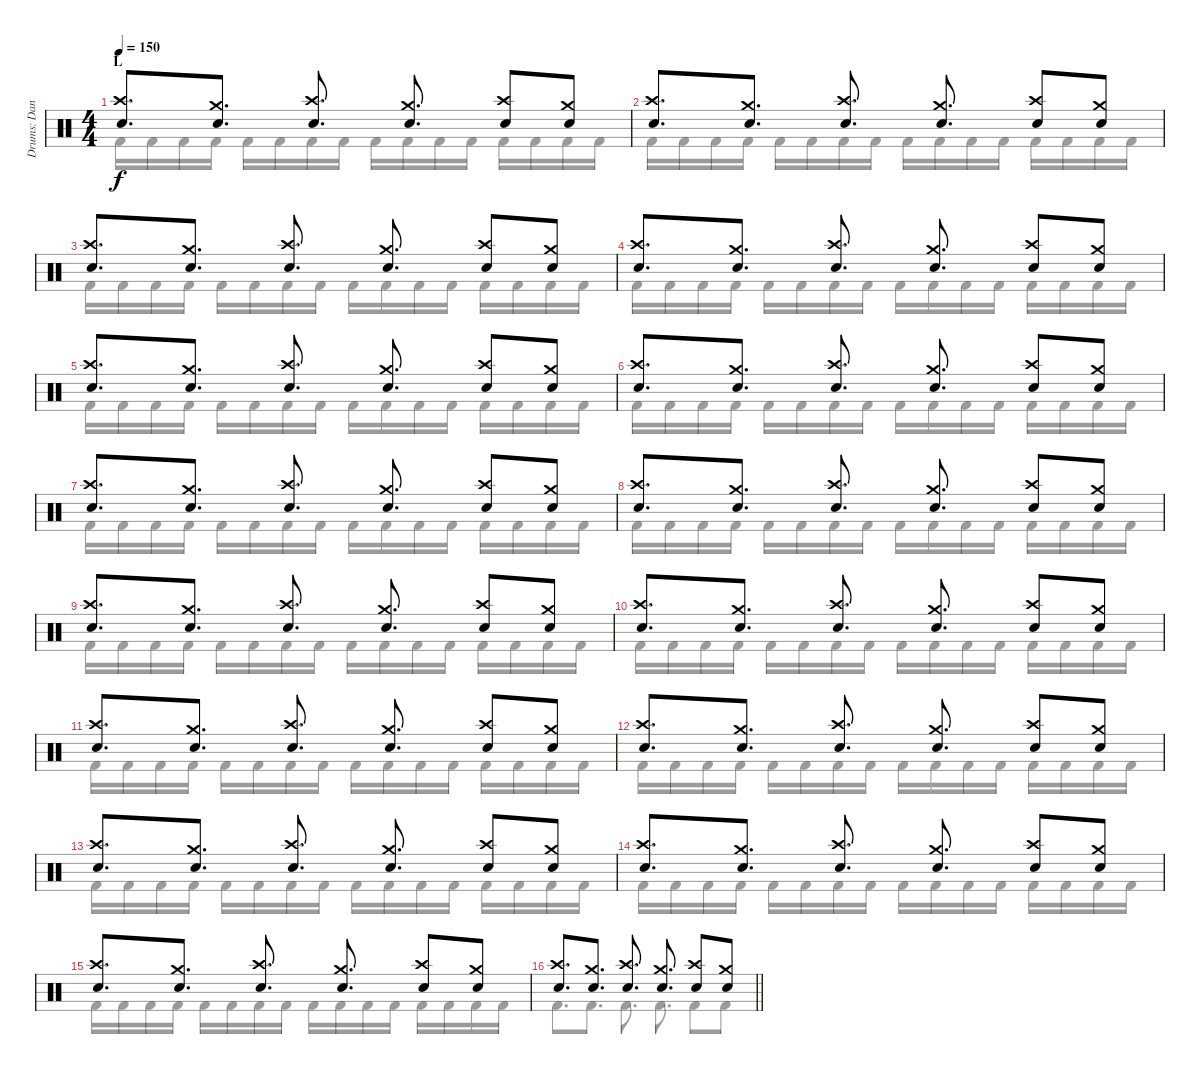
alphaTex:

\track ("Drums: Dana" "Drums: Dan") {instrument percussion}
\staff {score}
\articulation defaults
\voice
\ts (4 4)
\section ("" "L")
\tempo 150
\clef neutral
\ks c
("Crash high (hit)" "Snare (hit) 2").8{d dy f} ("Crash medium (hit)" "Snare (hit) 2").8{d} ("Crash high (hit)" "Snare (hit) 2").8{d} ("Crash medium (hit)" "Snare (hit) 2").8{d} ("Crash high (hit)" "Snare (hit) 2").8 ("Crash medium (hit)" "Snare (hit) 2").8 |
("Crash high (hit)" "Snare (hit) 2").8{d} ("Crash medium (hit)" "Snare (hit) 2").8{d} ("Crash high (hit)" "Snare (hit) 2").8{d} ("Crash medium (hit)" "Snare (hit) 2").8{d} ("Crash high (hit)" "Snare (hit) 2").8 ("Crash medium (hit)" "Snare (hit) 2").8 |
("Crash high (hit)" "Snare (hit) 2").8{d} ("Crash medium (hit)" "Snare (hit) 2").8{d} ("Crash high (hit)" "Snare (hit) 2").8{d} ("Crash medium (hit)" "Snare (hit) 2").8{d} ("Crash high (hit)" "Snare (hit) 2").8 ("Crash medium (hit)" "Snare (hit) 2").8 |
("Crash high (hit)" "Snare (hit) 2").8{d} ("Crash medium (hit)" "Snare (hit) 2").8{d} ("Crash high (hit)" "Snare (hit) 2").8{d} ("Crash medium (hit)" "Snare (hit) 2").8{d} ("Crash high (hit)" "Snare (hit) 2").8 ("Crash medium (hit)" "Snare (hit) 2").8 |
("Crash high (hit)" "Snare (hit) 2").8{d} ("Crash medium (hit)" "Snare (hit) 2").8{d} ("Crash high (hit)" "Snare (hit) 2").8{d} ("Crash medium (hit)" "Snare (hit) 2").8{d} ("Crash high (hit)" "Snare (hit) 2").8 ("Crash medium (hit)" "Snare (hit) 2").8 |
("Crash high (hit)" "Snare (hit) 2").8{d} ("Crash medium (hit)" "Snare (hit) 2").8{d} ("Crash high (hit)" "Snare (hit) 2").8{d} ("Crash medium (hit)" "Snare (hit) 2").8{d} ("Crash high (hit)" "Snare (hit) 2").8 ("Crash medium (hit)" "Snare (hit) 2").8 |
("Crash high (hit)" "Snare (hit) 2").8{d} ("Crash medium (hit)" "Snare (hit) 2").8{d} ("Crash high (hit)" "Snare (hit) 2").8{d} ("Crash medium (hit)" "Snare (hit) 2").8{d} ("Crash high (hit)" "Snare (hit) 2").8 ("Crash medium (hit)" "Snare (hit) 2").8 |
("Crash high (hit)" "Snare (hit) 2").8{d} ("Crash medium (hit)" "Snare (hit) 2").8{d} ("Crash high (hit)" "Snare (hit) 2").8{d} ("Crash medium (hit)" "Snare (hit) 2").8{d} ("Crash high (hit)" "Snare (hit) 2").8 ("Crash medium (hit)" "Snare (hit) 2").8 |
("Crash high (hit)" "Snare (hit) 2").8{d} ("Crash medium (hit)" "Snare (hit) 2").8{d} ("Crash high (hit)" "Snare (hit) 2").8{d} ("Crash medium (hit)" "Snare (hit) 2").8{d} ("Crash high (hit)" "Snare (hit) 2").8 ("Crash medium (hit)" "Snare (hit) 2").8 |
("Crash high (hit)" "Snare (hit) 2").8{d} ("Crash medium (hit)" "Snare (hit) 2").8{d} ("Crash high (hit)" "Snare (hit) 2").8{d} ("Crash medium (hit)" "Snare (hit) 2").8{d} ("Crash high (hit)" "Snare (hit) 2").8 ("Crash medium (hit)" "Snare (hit) 2").8 |
("Crash high (hit)" "Snare (hit) 2").8{d} ("Crash medium (hit)" "Snare (hit) 2").8{d} ("Crash high (hit)" "Snare (hit) 2").8{d} ("Crash medium (hit)" "Snare (hit) 2").8{d} ("Crash high (hit)" "Snare (hit) 2").8 ("Crash medium (hit)" "Snare (hit) 2").8 |
("Crash high (hit)" "Snare (hit) 2").8{d} ("Crash medium (hit)" "Snare (hit) 2").8{d} ("Crash high (hit)" "Snare (hit) 2").8{d} ("Crash medium (hit)" "Snare (hit) 2").8{d} ("Crash high (hit)" "Snare (hit) 2").8 ("Crash medium (hit)" "Snare (hit) 2").8 |
("Crash high (hit)" "Snare (hit) 2").8{d} ("Crash medium (hit)" "Snare (hit) 2").8{d} ("Crash high (hit)" "Snare (hit) 2").8{d} ("Crash medium (hit)" "Snare (hit) 2").8{d} ("Crash high (hit)" "Snare (hit) 2").8 ("Crash medium (hit)" "Snare (hit) 2").8 |
("Crash high (hit)" "Snare (hit) 2").8{d} ("Crash medium (hit)" "Snare (hit) 2").8{d} ("Crash high (hit)" "Snare (hit) 2").8{d} ("Crash medium (hit)" "Snare (hit) 2").8{d} ("Crash high (hit)" "Snare (hit) 2").8 ("Crash medium (hit)" "Snare (hit) 2").8 |
("Crash high (hit)" "Snare (hit) 2").8{d} ("Crash medium (hit)" "Snare (hit) 2").8{d} ("Crash high (hit)" "Snare (hit) 2").8{d} ("Crash medium (hit)" "Snare (hit) 2").8{d} ("Crash high (hit)" "Snare (hit) 2").8 ("Crash medium (hit)" "Snare (hit) 2").8 |
\barLineRight lightlight
("Crash high (hit)" "Snare (hit) 2").8{d} ("Crash medium (hit)" "Snare (hit) 2").8{d} ("Crash high (hit)" "Snare (hit) 2").8{d} ("Crash medium (hit)" "Snare (hit) 2").8{d} ("Crash high (hit)" "Snare (hit) 2").8 ("Crash medium (hit)" "Snare (hit) 2").8
\voice
\clef neutral
\ottava regular
\simile none
\ks c "Kick (hit) 2".16{dy f} "Kick (hit) 2".16 "Kick (hit) 2".16 "Kick (hit) 2".16 "Kick (hit) 2".16 "Kick (hit) 2".16 "Kick (hit) 2".16 "Kick (hit) 2".16 "Kick (hit) 2".16 "Kick (hit) 2".16 "Kick (hit) 2".16 "Kick (hit) 2".16 "Kick (hit) 2".16 "Kick (hit) 2".16 "Kick (hit) 2".16 "Kick (hit) 2".16
|
"Kick (hit) 2".16 "Kick (hit) 2".16 "Kick (hit) 2".16 "Kick (hit) 2".16 "Kick (hit) 2".16 "Kick (hit) 2".16 "Kick (hit) 2".16 "Kick (hit) 2".16 "Kick (hit) 2".16 "Kick (hit) 2".16 "Kick (hit) 2".16 "Kick (hit) 2".16 "Kick (hit) 2".16 "Kick (hit) 2".16 "Kick (hit) 2".16 "Kick (hit) 2".16 |
"Kick (hit) 2".16 "Kick (hit) 2".16 "Kick (hit) 2".16 "Kick (hit) 2".16 "Kick (hit) 2".16 "Kick (hit) 2".16 "Kick (hit) 2".16 "Kick (hit) 2".16 "Kick (hit) 2".16 "Kick (hit) 2".16 "Kick (hit) 2".16 "Kick (hit) 2".16 "Kick (hit) 2".16 "Kick (hit) 2".16 "Kick (hit) 2".16 "Kick (hit) 2".16 |
"Kick (hit) 2".16 "Kick (hit) 2".16 "Kick (hit) 2".16 "Kick (hit) 2".16 "Kick (hit) 2".16 "Kick (hit) 2".16 "Kick (hit) 2".16 "Kick (hit) 2".16 "Kick (hit) 2".16 "Kick (hit) 2".16 "Kick (hit) 2".16 "Kick (hit) 2".16 "Kick (hit) 2".16 "Kick (hit) 2".16 "Kick (hit) 2".16 "Kick (hit) 2".16 |
"Kick (hit) 2".16 "Kick (hit) 2".16 "Kick (hit) 2".16 "Kick (hit) 2".16 "Kick (hit) 2".16 "Kick (hit) 2".16 "Kick (hit) 2".16 "Kick (hit) 2".16 "Kick (hit) 2".16 "Kick (hit) 2".16 "Kick (hit) 2".16 "Kick (hit) 2".16 "Kick (hit) 2".16 "Kick (hit) 2".16 "Kick (hit) 2".16 "Kick (hit) 2".16 |
"Kick (hit) 2".16 "Kick (hit) 2".16 "Kick (hit) 2".16 "Kick (hit) 2".16 "Kick (hit) 2".16 "Kick (hit) 2".16 "Kick (hit) 2".16 "Kick (hit) 2".16 "Kick (hit) 2".16 "Kick (hit) 2".16 "Kick (hit) 2".16 "Kick (hit) 2".16 "Kick (hit) 2".16 "Kick (hit) 2".16 "Kick (hit) 2".16 "Kick (hit) 2".16 |
"Kick (hit) 2".16 "Kick (hit) 2".16 "Kick (hit) 2".16 "Kick (hit) 2".16 "Kick (hit) 2".16 "Kick (hit) 2".16 "Kick (hit) 2".16 "Kick (hit) 2".16 "Kick (hit) 2".16 "Kick (hit) 2".16 "Kick (hit) 2".16 "Kick (hit) 2".16 "Kick (hit) 2".16 "Kick (hit) 2".16 "Kick (hit) 2".16 "Kick (hit) 2".16 |
"Kick (hit) 2".16 "Kick (hit) 2".16 "Kick (hit) 2".16 "Kick (hit) 2".16 "Kick (hit) 2".16 "Kick (hit) 2".16 "Kick (hit) 2".16 "Kick (hit) 2".16 "Kick (hit) 2".16 "Kick (hit) 2".16 "Kick (hit) 2".16 "Kick (hit) 2".16 "Kick (hit) 2".16 "Kick (hit) 2".16 "Kick (hit) 2".16 "Kick (hit) 2".16 |
"Kick (hit) 2".16 "Kick (hit) 2".16 "Kick (hit) 2".16 "Kick (hit) 2".16 "Kick (hit) 2".16 "Kick (hit) 2".16 "Kick (hit) 2".16 "Kick (hit) 2".16 "Kick (hit) 2".16 "Kick (hit) 2".16 "Kick (hit) 2".16 "Kick (hit) 2".16 "Kick (hit) 2".16 "Kick (hit) 2".16 "Kick (hit) 2".16 "Kick (hit) 2".16 |
"Kick (hit) 2".16 "Kick (hit) 2".16 "Kick (hit) 2".16 "Kick (hit) 2".16 "Kick (hit) 2".16 "Kick (hit) 2".16 "Kick (hit) 2".16 "Kick (hit) 2".16 "Kick (hit) 2".16 "Kick (hit) 2".16 "Kick (hit) 2".16 "Kick (hit) 2".16 "Kick (hit) 2".16 "Kick (hit) 2".16 "Kick (hit) 2".16 "Kick (hit) 2".16 |
"Kick (hit) 2".16 "Kick (hit) 2".16 "Kick (hit) 2".16 "Kick (hit) 2".16 "Kick (hit) 2".16 "Kick (hit) 2".16 "Kick (hit) 2".16 "Kick (hit) 2".16 "Kick (hit) 2".16 "Kick (hit) 2".16 "Kick (hit) 2".16 "Kick (hit) 2".16 "Kick (hit) 2".16 "Kick (hit) 2".16 "Kick (hit) 2".16 "Kick (hit) 2".16 |
"Kick (hit) 2".16 "Kick (hit) 2".16 "Kick (hit) 2".16 "Kick (hit) 2".16 "Kick (hit) 2".16 "Kick (hit) 2".16 "Kick (hit) 2".16 "Kick (hit) 2".16 "Kick (hit) 2".16 "Kick (hit) 2".16 "Kick (hit) 2".16 "Kick (hit) 2".16 "Kick (hit) 2".16 "Kick (hit) 2".16 "Kick (hit) 2".16 "Kick (hit) 2".16 |
"Kick (hit) 2".16 "Kick (hit) 2".16 "Kick (hit) 2".16 "Kick (hit) 2".16 "Kick (hit) 2".16 "Kick (hit) 2".16 "Kick (hit) 2".16 "Kick (hit) 2".16 "Kick (hit) 2".16 "Kick (hit) 2".16 "Kick (hit) 2".16 "Kick (hit) 2".16 "Kick (hit) 2".16 "Kick (hit) 2".16 "Kick (hit) 2".16 "Kick (hit) 2".16 |
"Kick (hit) 2".16 "Kick (hit) 2".16 "Kick (hit) 2".16 "Kick (hit) 2".16 "Kick (hit) 2".16 "Kick (hit) 2".16 "Kick (hit) 2".16 "Kick (hit) 2".16 "Kick (hit) 2".16 "Kick (hit) 2".16 "Kick (hit) 2".16 "Kick (hit) 2".16 "Kick (hit) 2".16 "Kick (hit) 2".16 "Kick (hit) 2".16 "Kick (hit) 2".16 |
"Kick (hit) 2".16 "Kick (hit) 2".16 "Kick (hit) 2".16 "Kick (hit) 2".16 "Kick (hit) 2".16 "Kick (hit) 2".16 "Kick (hit) 2".16 "Kick (hit) 2".16 "Kick (hit) 2".16 "Kick (hit) 2".16 "Kick (hit) 2".16 "Kick (hit) 2".16 "Kick (hit) 2".16 "Kick (hit) 2".16 "Kick (hit) 2".16 "Kick (hit) 2".16 |
\barLineRight lightlight "Kick (hit) 2".8{d} "Kick (hit) 2".8{d} "Kick (hit) 2".8{d} "Kick (hit) 2".8{d} "Kick (hit) 2".8 "Kick (hit) 2".8
